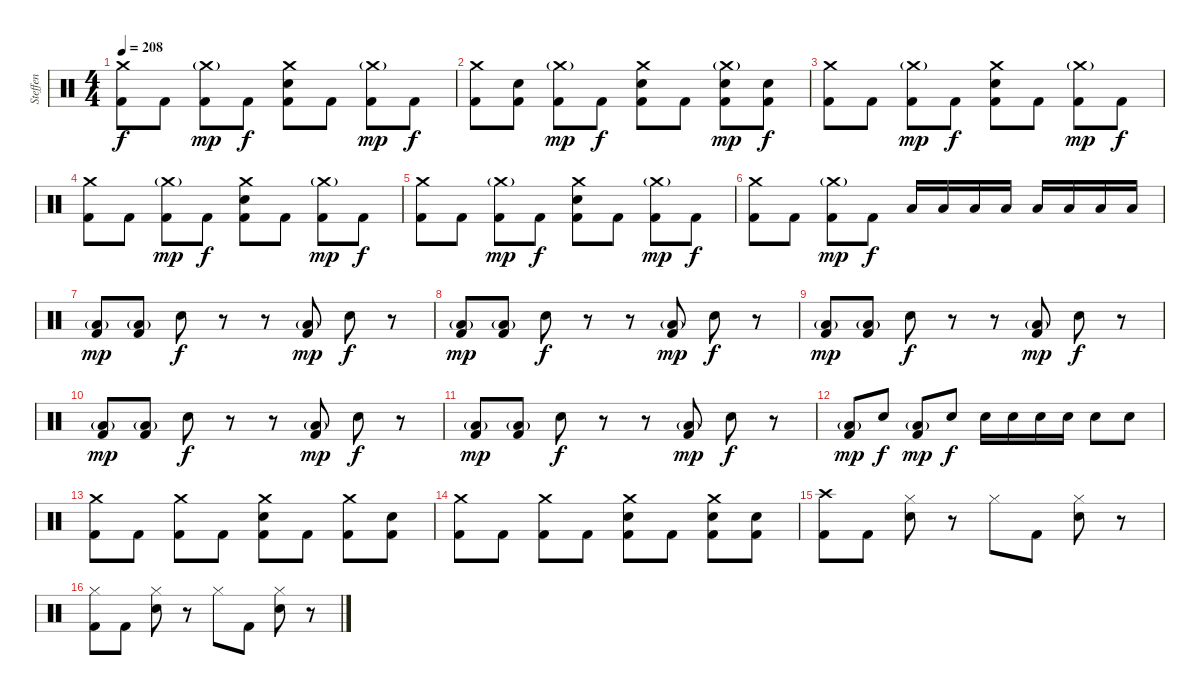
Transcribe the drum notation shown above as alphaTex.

\track ("Steffen" "Steffen") {instrument percussion}
\staff {score}
\articulation defaults
\ts (4 4)
\tempo 208
\clef neutral
\ks c
("Crash medium (hit)" "Kick (hit) 2").8{dy f} "Kick (hit) 2".8 ("Crash medium (hit)"{g} "Kick (hit) 2").8{dy mp} "Kick (hit) 2".8{dy f} ("Crash medium (hit)" "Snare (hit) 2" "Kick (hit) 2").8 "Kick (hit) 2".8 ("Crash medium (hit)"{g} "Kick (hit) 2").8{dy mp} "Kick (hit) 2".8{dy f} |
("Crash medium (hit)" "Kick (hit) 2").8 ("Snare (hit) 2" "Kick (hit) 2").8 ("Crash medium (hit)"{g} "Kick (hit) 2").8{dy mp} "Kick (hit) 2".8{dy f} ("Crash medium (hit)" "Snare (hit) 2" "Kick (hit) 2").8 "Kick (hit) 2".8 ("Crash medium (hit)"{g} "Snare (hit) 2" "Kick (hit) 2").8{dy mp} ("Snare (hit) 2" "Kick (hit) 2").8{dy f} |
("Crash medium (hit)" "Kick (hit) 2").8 "Kick (hit) 2".8 ("Crash medium (hit)"{g} "Kick (hit) 2").8{dy mp} "Kick (hit) 2".8{dy f} ("Crash medium (hit)" "Snare (hit) 2" "Kick (hit) 2").8 "Kick (hit) 2".8 ("Crash medium (hit)"{g} "Kick (hit) 2").8{dy mp} "Kick (hit) 2".8{dy f} |
("Crash medium (hit)" "Kick (hit) 2").8 "Kick (hit) 2".8 ("Crash medium (hit)"{g} "Kick (hit) 2").8{dy mp} "Kick (hit) 2".8{dy f} ("Crash medium (hit)" "Snare (hit) 2" "Kick (hit) 2").8 "Kick (hit) 2".8 ("Crash medium (hit)"{g} "Kick (hit) 2").8{dy mp} "Kick (hit) 2".8{dy f} |
("Crash medium (hit)" "Kick (hit) 2").8 "Kick (hit) 2".8 ("Crash medium (hit)"{g} "Kick (hit) 2").8{dy mp} "Kick (hit) 2".8{dy f} ("Crash medium (hit)" "Snare (hit) 2" "Kick (hit) 2").8 "Kick (hit) 2".8 ("Crash medium (hit)"{g} "Kick (hit) 2").8{dy mp} "Kick (hit) 2".8{dy f} |
("Crash medium (hit)" "Kick (hit) 2").8 "Kick (hit) 2".8 ("Crash medium (hit)"{g} "Kick (hit) 2").8{dy mp} "Kick (hit) 2".8{dy f} "Low Tom (hit)".16 "Low Tom (hit)".16 "Low Tom (hit)".16 "Low Tom (hit)".16 "Low Floor Tom (hit)".16 "Low Floor Tom (hit)".16 "Low Floor Tom (hit)".16 "Low Floor Tom (hit)".16 |
("Low Tom (hit)"{g} "Kick (hit) 2").8{dy mp} ("Low Tom (hit)"{g} "Kick (hit) 2").8 "Snare (hit) 2".8{dy f} r.8 r.8 ("Low Tom (hit)"{g} "Kick (hit) 2").8{dy mp} "Snare (hit) 2".8{dy f} r.8 |
("Low Tom (hit)"{g} "Kick (hit) 2").8{dy mp} ("Low Tom (hit)"{g} "Kick (hit) 2").8 "Snare (hit) 2".8{dy f} r.8 r.8 ("Low Tom (hit)"{g} "Kick (hit) 2").8{dy mp} "Snare (hit) 2".8{dy f} r.8 |
("Low Tom (hit)"{g} "Kick (hit) 2").8{dy mp} ("Low Tom (hit)"{g} "Kick (hit) 2").8 "Snare (hit) 2".8{dy f} r.8 r.8 ("Low Tom (hit)"{g} "Kick (hit) 2").8{dy mp} "Snare (hit) 2".8{dy f} r.8 |
("Low Tom (hit)"{g} "Kick (hit) 2").8{dy mp} ("Low Tom (hit)"{g} "Kick (hit) 2").8 "Snare (hit) 2".8{dy f} r.8 r.8 ("Low Tom (hit)"{g} "Kick (hit) 2").8{dy mp} "Snare (hit) 2".8{dy f} r.8 |
("Low Tom (hit)"{g} "Kick (hit) 2").8{dy mp} ("Low Tom (hit)"{g} "Kick (hit) 2").8 "Snare (hit) 2".8{dy f} r.8 r.8 ("Low Tom (hit)"{g} "Kick (hit) 2").8{dy mp} "Snare (hit) 2".8{dy f} r.8 |
("Low Tom (hit)"{g} "Kick (hit) 2").8{dy mp} "Snare (hit) 2".8{dy f} ("Low Tom (hit)"{g} "Kick (hit) 2").8{dy mp} "Snare (hit) 2".8{dy f} "Snare (hit) 2".16 "Snare (hit) 2".16 "Snare (hit) 2".16 "Snare (hit) 2".16 "Snare (hit) 2".8 "Snare (hit) 2".8 |
("Crash medium (hit)" "Kick (hit) 2").8 "Kick (hit) 2".8 ("Crash medium (hit)" "Kick (hit) 2").8 "Kick (hit) 2".8 ("Crash medium (hit)" "Snare (hit) 2" "Kick (hit) 2").8 "Kick (hit) 2".8 ("Crash medium (hit)" "Kick (hit) 2").8 ("Snare (hit) 2" "Kick (hit) 2").8 |
("Crash medium (hit)" "Kick (hit) 2").8 "Kick (hit) 2".8 ("Crash medium (hit)" "Kick (hit) 2").8 "Kick (hit) 2".8 ("Crash medium (hit)" "Snare (hit) 2" "Kick (hit) 2").8 "Kick (hit) 2".8 ("Crash medium (hit)" "Snare (hit) 2" "Kick (hit) 2").8 ("Snare (hit) 2" "Kick (hit) 2").8 |
("Crash high (hit)" "Kick (hit) 2").8 "Kick (hit) 2".8 ("Hi-Hat (closed)" "Snare (hit) 2").8 r.8 "Hi-Hat (closed)".8 "Kick (hit) 2".8 ("Hi-Hat (closed)" "Snare (hit) 2").8 r.8 |
("Hi-Hat (closed)" "Kick (hit) 2").8 "Kick (hit) 2".8 ("Hi-Hat (closed)" "Snare (hit) 2").8 r.8 "Hi-Hat (closed)".8 "Kick (hit) 2".8 ("Hi-Hat (closed)" "Snare (hit) 2").8 r.8
